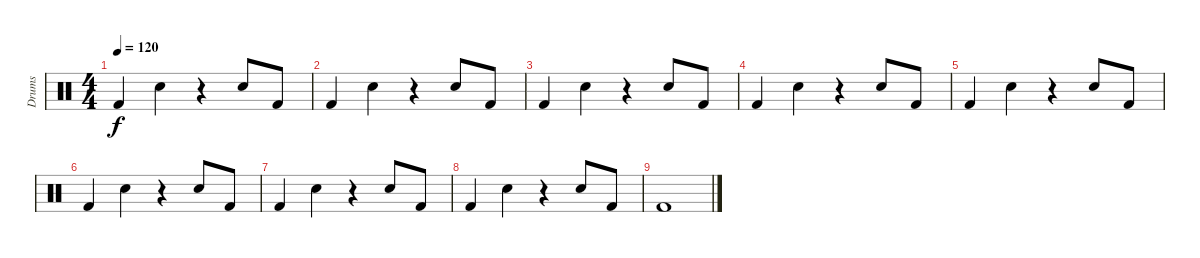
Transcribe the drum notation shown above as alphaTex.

\track ("Drums" "Drums") {instrument percussion}
\staff {score}
\articulation defaults
\ts (4 4)
\tempo 120
\clef neutral
\ks c "Kick (hit) 2".4{dy f} "Electric Snare (hit)".4
r.4 "Electric Snare (hit)".8 "Kick (hit) 2".8 |
"Kick (hit) 2".4 "Electric Snare (hit)".4 r.4 "Electric Snare (hit)".8 "Kick (hit) 2".8 |
"Kick (hit) 2".4 "Electric Snare (hit)".4 r.4 "Electric Snare (hit)".8 "Kick (hit) 2".8 |
"Kick (hit) 2".4 "Electric Snare (hit)".4 r.4 "Electric Snare (hit)".8 "Kick (hit) 2".8 |
"Kick (hit) 2".4 "Electric Snare (hit)".4 r.4 "Electric Snare (hit)".8 "Kick (hit) 2".8 |
"Kick (hit) 2".4 "Electric Snare (hit)".4 r.4 "Electric Snare (hit)".8 "Kick (hit) 2".8 |
"Kick (hit) 2".4 "Electric Snare (hit)".4 r.4 "Electric Snare (hit)".8 "Kick (hit) 2".8 |
"Kick (hit) 2".4 "Electric Snare (hit)".4 r.4 "Electric Snare (hit)".8 "Kick (hit) 2".8 |
"Kick (hit) 2".1
